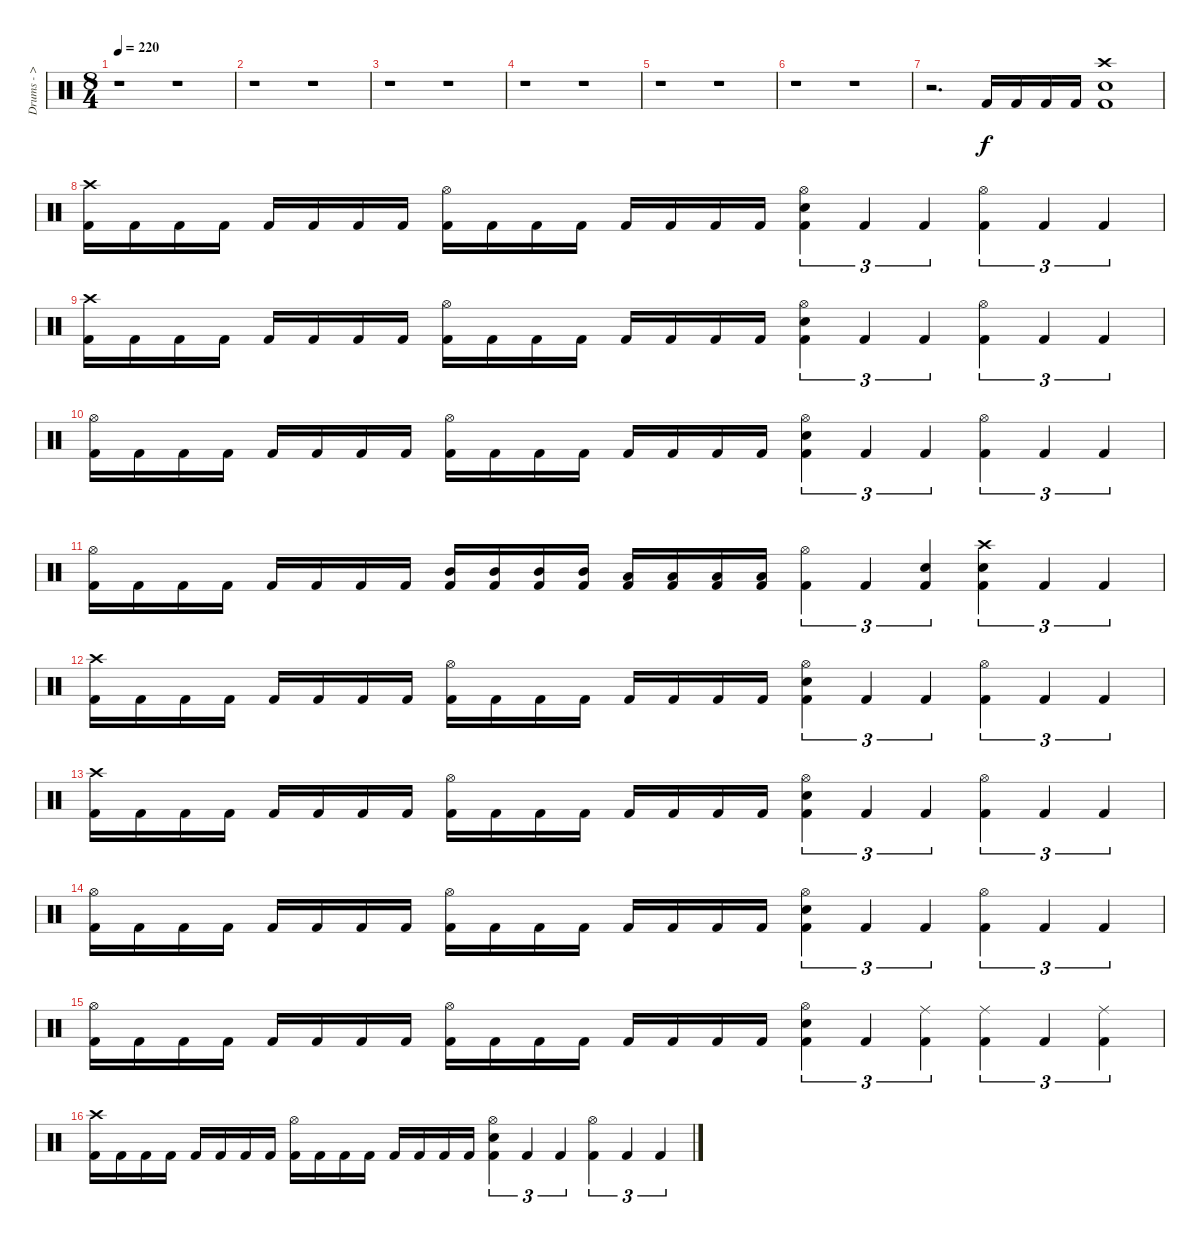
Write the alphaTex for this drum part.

\track ("Drums - > Nicholas" "Drums - > ") {instrument percussion}
\staff {score}
\articulation defaults
\ts (8 4)
\tempo 220
\clef neutral
\ks c
r.1{dy f} r.1 |
r.1 r.1 |
r.1 r.1 |
r.1 r.1 |
r.1 r.1 |
r.1 r.1 |
r.2{d} "Kick (hit) 2".16 "Kick (hit) 2".16 "Kick (hit) 2".16 "Kick (hit) 2".16 ("Kick (hit) 2" "Snare (hit) 2" "Crash high (hit)").1 |
("Kick (hit) 2" "Crash high (hit)").16 "Kick (hit) 2".16 "Kick (hit) 2".16 "Kick (hit) 2".16 "Kick (hit) 2".16 "Kick (hit) 2".16 "Kick (hit) 2".16 "Kick (hit) 2".16 ("Kick (hit) 2" "Hi-Hat (open)").16 "Kick (hit) 2".16 "Kick (hit) 2".16 "Kick (hit) 2".16 "Kick (hit) 2".16 "Kick (hit) 2".16 "Kick (hit) 2".16 "Kick (hit) 2".16 ("Kick (hit) 2" "Snare (hit) 2" "Hi-Hat (open)").4{tu (3 2)} "Kick (hit) 2".4{tu (3 2)} "Kick (hit) 2".4{tu (3 2)} ("Kick (hit) 2" "Hi-Hat (open)").4{tu (3 2)} "Kick (hit) 2".4{tu (3 2)} "Kick (hit) 2".4{tu (3 2)} |
("Kick (hit) 2" "Crash high (hit)").16 "Kick (hit) 2".16 "Kick (hit) 2".16 "Kick (hit) 2".16 "Kick (hit) 2".16 "Kick (hit) 2".16 "Kick (hit) 2".16 "Kick (hit) 2".16 ("Kick (hit) 2" "Hi-Hat (open)").16 "Kick (hit) 2".16 "Kick (hit) 2".16 "Kick (hit) 2".16 "Kick (hit) 2".16 "Kick (hit) 2".16 "Kick (hit) 2".16 "Kick (hit) 2".16 ("Kick (hit) 2" "Snare (hit) 2" "Hi-Hat (open)").4{tu (3 2)} "Kick (hit) 2".4{tu (3 2)} "Kick (hit) 2".4{tu (3 2)} ("Kick (hit) 2" "Hi-Hat (open)").4{tu (3 2)} "Kick (hit) 2".4{tu (3 2)} "Kick (hit) 2".4{tu (3 2)} |
("Kick (hit) 2" "Hi-Hat (open)").16 "Kick (hit) 2".16 "Kick (hit) 2".16 "Kick (hit) 2".16 "Kick (hit) 2".16 "Kick (hit) 2".16 "Kick (hit) 2".16 "Kick (hit) 2".16 ("Kick (hit) 2" "Hi-Hat (open)").16 "Kick (hit) 2".16 "Kick (hit) 2".16 "Kick (hit) 2".16 "Kick (hit) 2".16 "Kick (hit) 2".16 "Kick (hit) 2".16 "Kick (hit) 2".16 ("Kick (hit) 2" "Snare (hit) 2" "Hi-Hat (open)").4{tu (3 2)} "Kick (hit) 2".4{tu (3 2)} "Kick (hit) 2".4{tu (3 2)} ("Kick (hit) 2" "Hi-Hat (open)").4{tu (3 2)} "Kick (hit) 2".4{tu (3 2)} "Kick (hit) 2".4{tu (3 2)} |
("Kick (hit) 2" "Hi-Hat (open)").16 "Kick (hit) 2".16 "Kick (hit) 2".16 "Kick (hit) 2".16 "Kick (hit) 2".16 "Kick (hit) 2".16 "Kick (hit) 2".16 "Kick (hit) 2".16 ("Kick (hit) 2" "Mid Tom (hit)").16 ("Kick (hit) 2" "Mid Tom (hit)").16 ("Kick (hit) 2" "Mid Tom (hit)").16 ("Kick (hit) 2" "Mid Tom (hit)").16 ("Kick (hit) 2" "Low Tom (hit)").16 ("Kick (hit) 2" "Low Tom (hit)").16 ("Kick (hit) 2" "Low Tom (hit)").16 ("Kick (hit) 2" "Low Tom (hit)").16 ("Kick (hit) 2" "Hi-Hat (open)").4{tu (3 2)} "Kick (hit) 2".4{tu (3 2)} ("Kick (hit) 2" "Snare (hit) 2").4{tu (3 2)} ("Kick (hit) 2" "Snare (hit) 2" "Crash high (hit)").4{tu (3 2)} "Kick (hit) 2".4{tu (3 2)} "Kick (hit) 2".4{tu (3 2)} |
("Kick (hit) 2" "Crash high (hit)").16 "Kick (hit) 2".16 "Kick (hit) 2".16 "Kick (hit) 2".16 "Kick (hit) 2".16 "Kick (hit) 2".16 "Kick (hit) 2".16 "Kick (hit) 2".16 ("Kick (hit) 2" "Hi-Hat (open)").16 "Kick (hit) 2".16 "Kick (hit) 2".16 "Kick (hit) 2".16 "Kick (hit) 2".16 "Kick (hit) 2".16 "Kick (hit) 2".16 "Kick (hit) 2".16 ("Kick (hit) 2" "Snare (hit) 2" "Hi-Hat (open)").4{tu (3 2)} "Kick (hit) 2".4{tu (3 2)} "Kick (hit) 2".4{tu (3 2)} ("Kick (hit) 2" "Hi-Hat (open)").4{tu (3 2)} "Kick (hit) 2".4{tu (3 2)} "Kick (hit) 2".4{tu (3 2)} |
("Kick (hit) 2" "Crash high (hit)").16 "Kick (hit) 2".16 "Kick (hit) 2".16 "Kick (hit) 2".16 "Kick (hit) 2".16 "Kick (hit) 2".16 "Kick (hit) 2".16 "Kick (hit) 2".16 ("Kick (hit) 2" "Hi-Hat (open)").16 "Kick (hit) 2".16 "Kick (hit) 2".16 "Kick (hit) 2".16 "Kick (hit) 2".16 "Kick (hit) 2".16 "Kick (hit) 2".16 "Kick (hit) 2".16 ("Kick (hit) 2" "Snare (hit) 2" "Hi-Hat (open)").4{tu (3 2)} "Kick (hit) 2".4{tu (3 2)} "Kick (hit) 2".4{tu (3 2)} ("Kick (hit) 2" "Hi-Hat (open)").4{tu (3 2)} "Kick (hit) 2".4{tu (3 2)} "Kick (hit) 2".4{tu (3 2)} |
("Kick (hit) 2" "Hi-Hat (open)").16 "Kick (hit) 2".16 "Kick (hit) 2".16 "Kick (hit) 2".16 "Kick (hit) 2".16 "Kick (hit) 2".16 "Kick (hit) 2".16 "Kick (hit) 2".16 ("Kick (hit) 2" "Hi-Hat (open)").16 "Kick (hit) 2".16 "Kick (hit) 2".16 "Kick (hit) 2".16 "Kick (hit) 2".16 "Kick (hit) 2".16 "Kick (hit) 2".16 "Kick (hit) 2".16 ("Kick (hit) 2" "Snare (hit) 2" "Hi-Hat (open)").4{tu (3 2)} "Kick (hit) 2".4{tu (3 2)} "Kick (hit) 2".4{tu (3 2)} ("Kick (hit) 2" "Hi-Hat (open)").4{tu (3 2)} "Kick (hit) 2".4{tu (3 2)} "Kick (hit) 2".4{tu (3 2)} |
("Kick (hit) 2" "Hi-Hat (open)").16 "Kick (hit) 2".16 "Kick (hit) 2".16 "Kick (hit) 2".16 "Kick (hit) 2".16 "Kick (hit) 2".16 "Kick (hit) 2".16 "Kick (hit) 2".16 ("Kick (hit) 2" "Hi-Hat (open)").16 "Kick (hit) 2".16 "Kick (hit) 2".16 "Kick (hit) 2".16 "Kick (hit) 2".16 "Kick (hit) 2".16 "Kick (hit) 2".16 "Kick (hit) 2".16 ("Kick (hit) 2" "Snare (hit) 2" "Hi-Hat (open)").4{tu (3 2)} "Kick (hit) 2".4{tu (3 2)} ("Kick (hit) 2" "Ride (middle)").4{tu (3 2)} ("Kick (hit) 2" "Ride (middle)").4{tu (3 2)} "Kick (hit) 2".4{tu (3 2)} ("Kick (hit) 2" "Ride (middle)").4{tu (3 2)} |
("Kick (hit) 2" "Crash high (hit)").16 "Kick (hit) 2".16 "Kick (hit) 2".16 "Kick (hit) 2".16 "Kick (hit) 2".16 "Kick (hit) 2".16 "Kick (hit) 2".16 "Kick (hit) 2".16 ("Kick (hit) 2" "Hi-Hat (open)").16 "Kick (hit) 2".16 "Kick (hit) 2".16 "Kick (hit) 2".16 "Kick (hit) 2".16 "Kick (hit) 2".16 "Kick (hit) 2".16 "Kick (hit) 2".16 ("Kick (hit) 2" "Snare (hit) 2" "Hi-Hat (open)").4{tu (3 2)} "Kick (hit) 2".4{tu (3 2)} "Kick (hit) 2".4{tu (3 2)} ("Kick (hit) 2" "Hi-Hat (open)").4{tu (3 2)} "Kick (hit) 2".4{tu (3 2)} "Kick (hit) 2".4{tu (3 2)}
